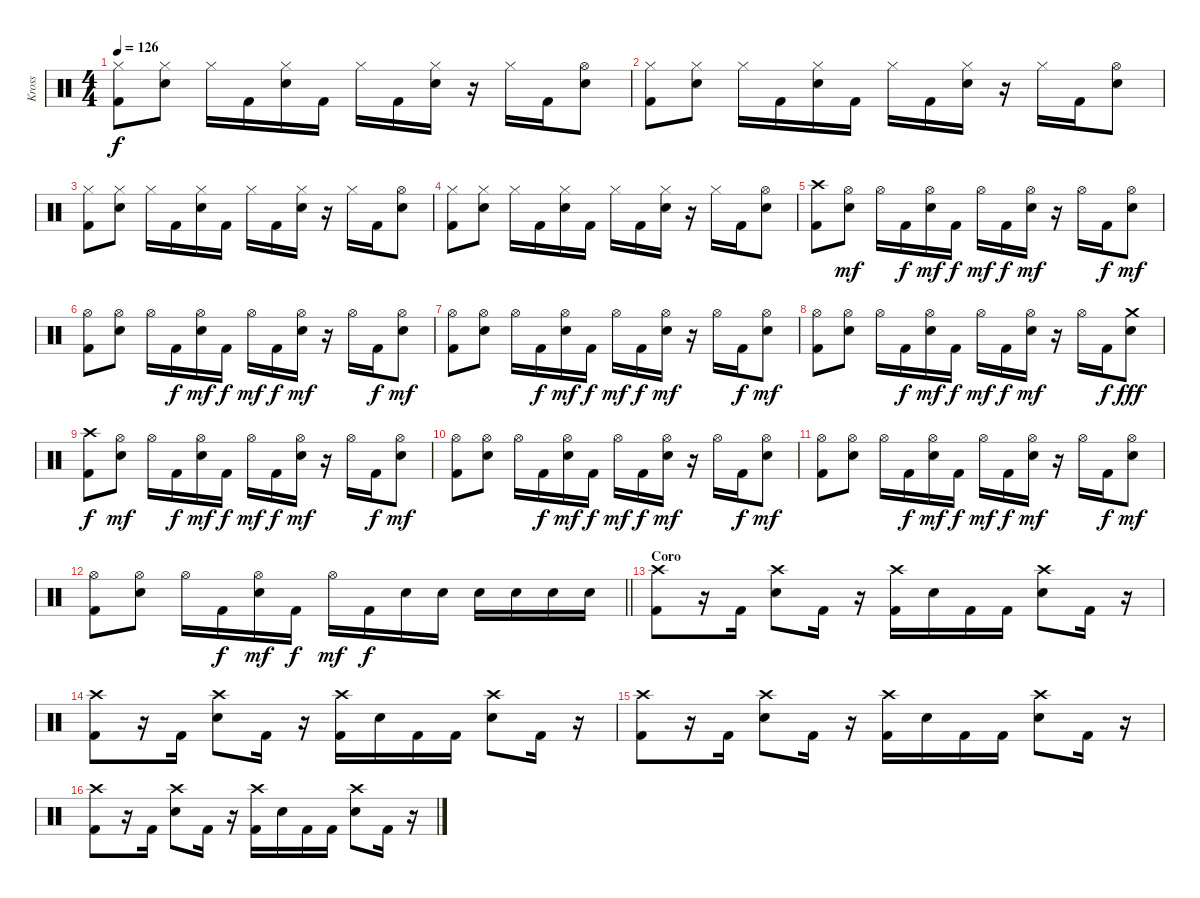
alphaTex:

\track ("Kross" "Kross") {instrument percussion}
\staff {score}
\articulation defaults
\ts (4 4)
\tempo 126
\clef neutral
\ks c
("Hi-Hat (closed)" "Kick (hit) 2").8{dy f} ("Hi-Hat (closed)" "Electric Snare (hit)").8 "Hi-Hat (closed)".16 "Kick (hit) 2".16 ("Hi-Hat (closed)" "Electric Snare (hit)").16 "Kick (hit) 2".16 "Hi-Hat (closed)".16 "Kick (hit) 2".16 ("Hi-Hat (closed)" "Electric Snare (hit)").16 r.16 "Hi-Hat (closed)".16 "Kick (hit) 2".16 ("Hi-Hat (open)" "Electric Snare (hit)").8 |
("Hi-Hat (closed)" "Kick (hit) 2").8 ("Hi-Hat (closed)" "Electric Snare (hit)").8 "Hi-Hat (closed)".16 "Kick (hit) 2".16 ("Hi-Hat (closed)" "Electric Snare (hit)").16 "Kick (hit) 2".16 "Hi-Hat (closed)".16 "Kick (hit) 2".16 ("Hi-Hat (closed)" "Electric Snare (hit)").16 r.16 "Hi-Hat (closed)".16 "Kick (hit) 2".16 ("Hi-Hat (open)" "Electric Snare (hit)").8 |
("Hi-Hat (closed)" "Kick (hit) 2").8 ("Hi-Hat (closed)" "Electric Snare (hit)").8 "Hi-Hat (closed)".16 "Kick (hit) 2".16 ("Hi-Hat (closed)" "Electric Snare (hit)").16 "Kick (hit) 2".16 "Hi-Hat (closed)".16 "Kick (hit) 2".16 ("Hi-Hat (closed)" "Electric Snare (hit)").16 r.16 "Hi-Hat (closed)".16 "Kick (hit) 2".16 ("Hi-Hat (open)" "Electric Snare (hit)").8 |
("Hi-Hat (closed)" "Kick (hit) 2").8 ("Hi-Hat (closed)" "Electric Snare (hit)").8 "Hi-Hat (closed)".16 "Kick (hit) 2".16 ("Hi-Hat (closed)" "Electric Snare (hit)").16 "Kick (hit) 2".16 "Hi-Hat (closed)".16 "Kick (hit) 2".16 ("Hi-Hat (closed)" "Electric Snare (hit)").16 r.16 "Hi-Hat (closed)".16 "Kick (hit) 2".16 ("Hi-Hat (open)" "Electric Snare (hit)").8 |
("Crash high (hit)" "Kick (hit) 2").8 ("Hi-Hat (open)" "Electric Snare (hit)").8{dy mf} "Hi-Hat (open)".16 "Kick (hit) 2".16{dy f} ("Hi-Hat (open)" "Electric Snare (hit)").16{dy mf} "Kick (hit) 2".16{dy f} "Hi-Hat (open)".16{dy mf} "Kick (hit) 2".16{dy f} ("Hi-Hat (open)" "Electric Snare (hit)").16{dy mf} r.16 "Hi-Hat (open)".16 "Kick (hit) 2".16{dy f} ("Hi-Hat (open)" "Electric Snare (hit)").8{dy mf} |
("Hi-Hat (open)" "Kick (hit) 2").8 ("Hi-Hat (open)" "Electric Snare (hit)").8 "Hi-Hat (open)".16 "Kick (hit) 2".16{dy f} ("Hi-Hat (open)" "Electric Snare (hit)").16{dy mf} "Kick (hit) 2".16{dy f} "Hi-Hat (open)".16{dy mf} "Kick (hit) 2".16{dy f} ("Hi-Hat (open)" "Electric Snare (hit)").16{dy mf} r.16 "Hi-Hat (open)".16 "Kick (hit) 2".16{dy f} ("Hi-Hat (open)" "Electric Snare (hit)").8{dy mf} |
("Hi-Hat (open)" "Kick (hit) 2").8 ("Hi-Hat (open)" "Electric Snare (hit)").8 "Hi-Hat (open)".16 "Kick (hit) 2".16{dy f} ("Hi-Hat (open)" "Electric Snare (hit)").16{dy mf} "Kick (hit) 2".16{dy f} "Hi-Hat (open)".16{dy mf} "Kick (hit) 2".16{dy f} ("Hi-Hat (open)" "Electric Snare (hit)").16{dy mf} r.16 "Hi-Hat (open)".16 "Kick (hit) 2".16{dy f} ("Hi-Hat (open)" "Electric Snare (hit)").8{dy mf} |
("Hi-Hat (open)" "Kick (hit) 2").8 ("Hi-Hat (open)" "Electric Snare (hit)").8 "Hi-Hat (open)".16 "Kick (hit) 2".16{dy f} ("Hi-Hat (open)" "Electric Snare (hit)").16{dy mf} "Kick (hit) 2".16{dy f} "Hi-Hat (open)".16{dy mf} "Kick (hit) 2".16{dy f} ("Hi-Hat (open)" "Electric Snare (hit)").16{dy mf} r.16 "Hi-Hat (open)".16 "Kick (hit) 2".16{dy f} ("Crash medium (hit)" "Electric Snare (hit)").8{dy fff} |
("Crash high (hit)" "Kick (hit) 2").8{dy f} ("Hi-Hat (open)" "Electric Snare (hit)").8{dy mf} "Hi-Hat (open)".16 "Kick (hit) 2".16{dy f} ("Hi-Hat (open)" "Electric Snare (hit)").16{dy mf} "Kick (hit) 2".16{dy f} "Hi-Hat (open)".16{dy mf} "Kick (hit) 2".16{dy f} ("Hi-Hat (open)" "Electric Snare (hit)").16{dy mf} r.16 "Hi-Hat (open)".16 "Kick (hit) 2".16{dy f} ("Hi-Hat (open)" "Electric Snare (hit)").8{dy mf} |
("Hi-Hat (open)" "Kick (hit) 2").8 ("Hi-Hat (open)" "Electric Snare (hit)").8 "Hi-Hat (open)".16 "Kick (hit) 2".16{dy f} ("Hi-Hat (open)" "Electric Snare (hit)").16{dy mf} "Kick (hit) 2".16{dy f} "Hi-Hat (open)".16{dy mf} "Kick (hit) 2".16{dy f} ("Hi-Hat (open)" "Electric Snare (hit)").16{dy mf} r.16 "Hi-Hat (open)".16 "Kick (hit) 2".16{dy f} ("Hi-Hat (open)" "Electric Snare (hit)").8{dy mf} |
("Hi-Hat (open)" "Kick (hit) 2").8 ("Hi-Hat (open)" "Electric Snare (hit)").8 "Hi-Hat (open)".16 "Kick (hit) 2".16{dy f} ("Hi-Hat (open)" "Electric Snare (hit)").16{dy mf} "Kick (hit) 2".16{dy f} "Hi-Hat (open)".16{dy mf} "Kick (hit) 2".16{dy f} ("Hi-Hat (open)" "Electric Snare (hit)").16{dy mf} r.16 "Hi-Hat (open)".16 "Kick (hit) 2".16{dy f} ("Hi-Hat (open)" "Electric Snare (hit)").8{dy mf} |
\barLineRight lightlight
("Hi-Hat (open)" "Kick (hit) 2").8 ("Hi-Hat (open)" "Electric Snare (hit)").8 "Hi-Hat (open)".16 "Kick (hit) 2".16{dy f} ("Hi-Hat (open)" "Electric Snare (hit)").16{dy mf} "Kick (hit) 2".16{dy f} "Hi-Hat (open)".16{dy mf} "Kick (hit) 2".16{dy f} "Electric Snare (hit)".16 "Electric Snare (hit)".16 "Electric Snare (hit)".16 "Electric Snare (hit)".16 "Electric Snare (hit)".16 "Electric Snare (hit)".16 |
\section ("" "Coro")
("Crash high (hit)" "Kick (hit) 2").8 r.16 "Kick (hit) 2".16 ("Crash high (hit)" "Electric Snare (hit)").8 "Kick (hit) 2".16 r.16 ("Crash high (hit)" "Kick (hit) 2").16 "Electric Snare (hit)".16 "Kick (hit) 2".16 "Kick (hit) 2".16 ("Crash high (hit)" "Electric Snare (hit)").8 "Kick (hit) 2".16 r.16 |
("Crash high (hit)" "Kick (hit) 2").8 r.16 "Kick (hit) 2".16 ("Crash high (hit)" "Electric Snare (hit)").8 "Kick (hit) 2".16 r.16 ("Crash high (hit)" "Kick (hit) 2").16 "Electric Snare (hit)".16 "Kick (hit) 2".16 "Kick (hit) 2".16 ("Crash high (hit)" "Electric Snare (hit)").8 "Kick (hit) 2".16 r.16 |
("Crash high (hit)" "Kick (hit) 2").8 r.16 "Kick (hit) 2".16 ("Crash high (hit)" "Electric Snare (hit)").8 "Kick (hit) 2".16 r.16 ("Crash high (hit)" "Kick (hit) 2").16 "Electric Snare (hit)".16 "Kick (hit) 2".16 "Kick (hit) 2".16 ("Crash high (hit)" "Electric Snare (hit)").8 "Kick (hit) 2".16 r.16 |
("Crash high (hit)" "Kick (hit) 2").8 r.16 "Kick (hit) 2".16 ("Crash high (hit)" "Electric Snare (hit)").8 "Kick (hit) 2".16 r.16 ("Crash high (hit)" "Kick (hit) 2").16 "Electric Snare (hit)".16 "Kick (hit) 2".16 "Kick (hit) 2".16 ("Crash high (hit)" "Electric Snare (hit)").8 "Kick (hit) 2".16 r.16
